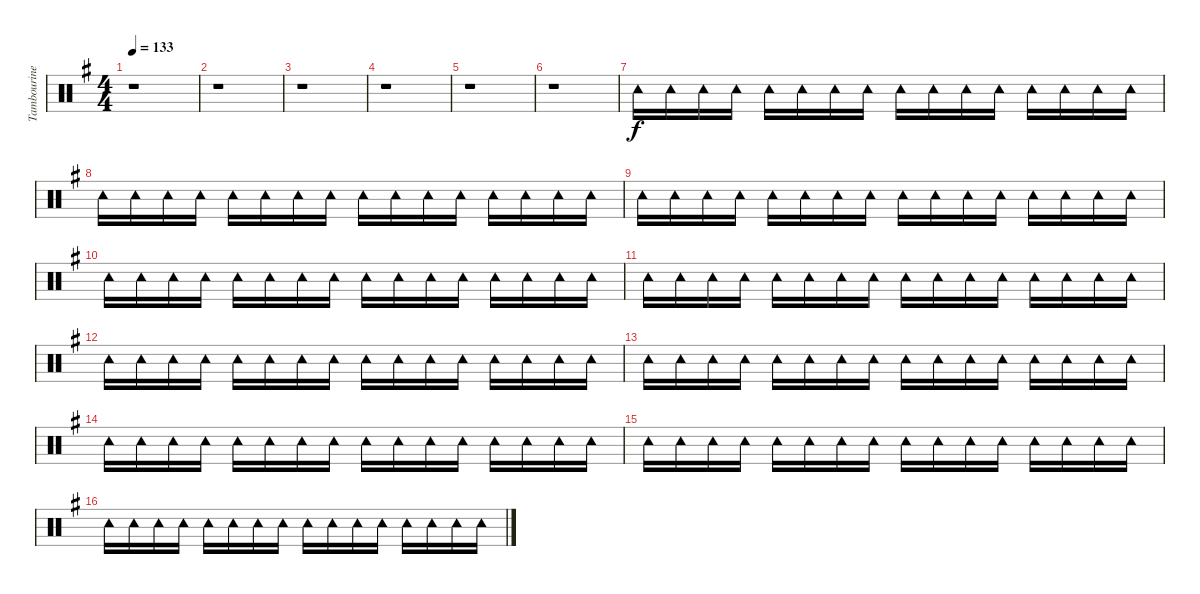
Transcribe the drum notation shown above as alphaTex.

\track ("Tambourine" "Tambourine") {instrument percussion}
\staff {score}
\articulation defaults
\ts (4 4)
\tempo 133
\clef neutral
\ks g
r.1{dy f} |
r.1 |
r.1 |
r.1 |
r.1 |
r.1 |
"Tambourine (hit)".16 "Tambourine (hit)".16 "Tambourine (hit)".16 "Tambourine (hit)".16 "Tambourine (hit)".16 "Tambourine (hit)".16 "Tambourine (hit)".16 "Tambourine (hit)".16 "Tambourine (hit)".16 "Tambourine (hit)".16 "Tambourine (hit)".16 "Tambourine (hit)".16 "Tambourine (hit)".16 "Tambourine (hit)".16 "Tambourine (hit)".16 "Tambourine (hit)".16 |
"Tambourine (hit)".16 "Tambourine (hit)".16 "Tambourine (hit)".16 "Tambourine (hit)".16 "Tambourine (hit)".16 "Tambourine (hit)".16 "Tambourine (hit)".16 "Tambourine (hit)".16 "Tambourine (hit)".16 "Tambourine (hit)".16 "Tambourine (hit)".16 "Tambourine (hit)".16 "Tambourine (hit)".16 "Tambourine (hit)".16 "Tambourine (hit)".16 "Tambourine (hit)".16 |
"Tambourine (hit)".16 "Tambourine (hit)".16 "Tambourine (hit)".16 "Tambourine (hit)".16 "Tambourine (hit)".16 "Tambourine (hit)".16 "Tambourine (hit)".16 "Tambourine (hit)".16 "Tambourine (hit)".16 "Tambourine (hit)".16 "Tambourine (hit)".16 "Tambourine (hit)".16 "Tambourine (hit)".16 "Tambourine (hit)".16 "Tambourine (hit)".16 "Tambourine (hit)".16 |
"Tambourine (hit)".16 "Tambourine (hit)".16 "Tambourine (hit)".16 "Tambourine (hit)".16 "Tambourine (hit)".16 "Tambourine (hit)".16 "Tambourine (hit)".16 "Tambourine (hit)".16 "Tambourine (hit)".16 "Tambourine (hit)".16 "Tambourine (hit)".16 "Tambourine (hit)".16 "Tambourine (hit)".16 "Tambourine (hit)".16 "Tambourine (hit)".16 "Tambourine (hit)".16 |
"Tambourine (hit)".16 "Tambourine (hit)".16 "Tambourine (hit)".16 "Tambourine (hit)".16 "Tambourine (hit)".16 "Tambourine (hit)".16 "Tambourine (hit)".16 "Tambourine (hit)".16 "Tambourine (hit)".16 "Tambourine (hit)".16 "Tambourine (hit)".16 "Tambourine (hit)".16 "Tambourine (hit)".16 "Tambourine (hit)".16 "Tambourine (hit)".16 "Tambourine (hit)".16 |
"Tambourine (hit)".16 "Tambourine (hit)".16 "Tambourine (hit)".16 "Tambourine (hit)".16 "Tambourine (hit)".16 "Tambourine (hit)".16 "Tambourine (hit)".16 "Tambourine (hit)".16 "Tambourine (hit)".16 "Tambourine (hit)".16 "Tambourine (hit)".16 "Tambourine (hit)".16 "Tambourine (hit)".16 "Tambourine (hit)".16 "Tambourine (hit)".16 "Tambourine (hit)".16 |
"Tambourine (hit)".16 "Tambourine (hit)".16 "Tambourine (hit)".16 "Tambourine (hit)".16 "Tambourine (hit)".16 "Tambourine (hit)".16 "Tambourine (hit)".16 "Tambourine (hit)".16 "Tambourine (hit)".16 "Tambourine (hit)".16 "Tambourine (hit)".16 "Tambourine (hit)".16 "Tambourine (hit)".16 "Tambourine (hit)".16 "Tambourine (hit)".16 "Tambourine (hit)".16 |
"Tambourine (hit)".16 "Tambourine (hit)".16 "Tambourine (hit)".16 "Tambourine (hit)".16 "Tambourine (hit)".16 "Tambourine (hit)".16 "Tambourine (hit)".16 "Tambourine (hit)".16 "Tambourine (hit)".16 "Tambourine (hit)".16 "Tambourine (hit)".16 "Tambourine (hit)".16 "Tambourine (hit)".16 "Tambourine (hit)".16 "Tambourine (hit)".16 "Tambourine (hit)".16 |
"Tambourine (hit)".16 "Tambourine (hit)".16 "Tambourine (hit)".16 "Tambourine (hit)".16 "Tambourine (hit)".16 "Tambourine (hit)".16 "Tambourine (hit)".16 "Tambourine (hit)".16 "Tambourine (hit)".16 "Tambourine (hit)".16 "Tambourine (hit)".16 "Tambourine (hit)".16 "Tambourine (hit)".16 "Tambourine (hit)".16 "Tambourine (hit)".16 "Tambourine (hit)".16 |
"Tambourine (hit)".16 "Tambourine (hit)".16 "Tambourine (hit)".16 "Tambourine (hit)".16 "Tambourine (hit)".16 "Tambourine (hit)".16 "Tambourine (hit)".16 "Tambourine (hit)".16 "Tambourine (hit)".16 "Tambourine (hit)".16 "Tambourine (hit)".16 "Tambourine (hit)".16 "Tambourine (hit)".16 "Tambourine (hit)".16 "Tambourine (hit)".16 "Tambourine (hit)".16
